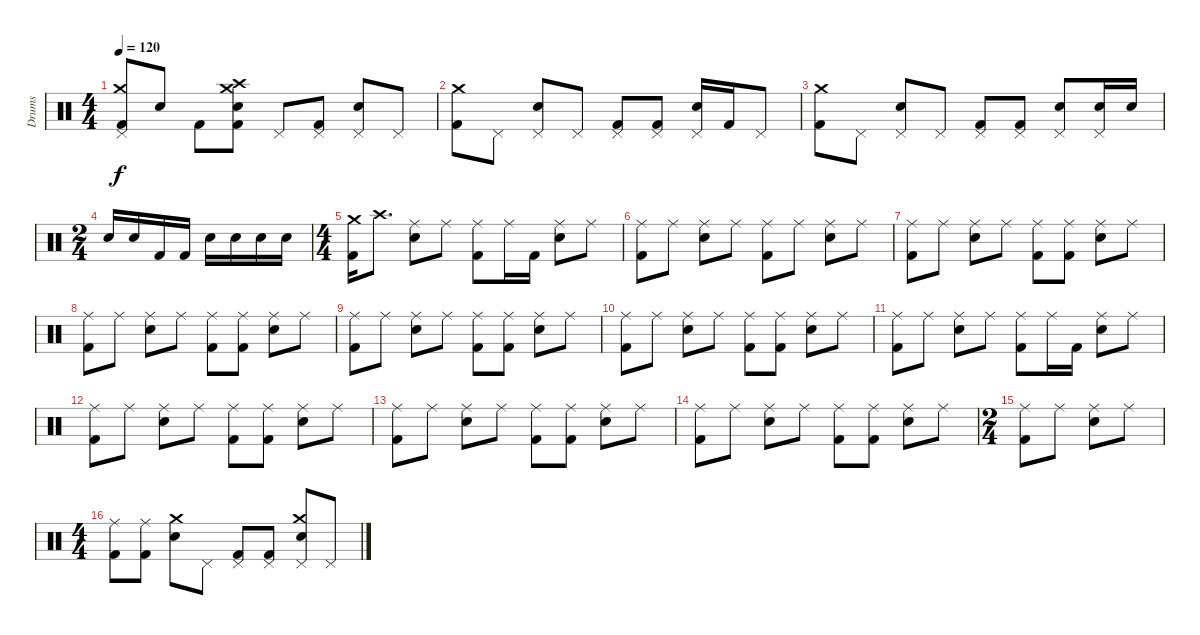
\track ("Drums" "Drums") {instrument percussion}
\staff {score}
\articulation defaults
\ts (4 4)
\tempo 120
\clef neutral
\ks c
("Pedal Hi-Hat (hit)" "Crash medium (hit)" "Kick (hit) 2").8{dy f} "Snare (hit) 2".8 "Kick (hit) 2".8 ("Crash medium (hit)" "Kick (hit) 2" "Snare (hit) 2" "Crash high (hit)").8 "Pedal Hi-Hat (hit)".8 ("Pedal Hi-Hat (hit)" "Kick (hit) 2").8 ("Pedal Hi-Hat (hit)" "Snare (hit) 2").8 "Pedal Hi-Hat (hit)".8 |
("Kick (hit) 2" "Crash medium (hit)").8 "Pedal Hi-Hat (hit)".8 ("Pedal Hi-Hat (hit)" "Snare (hit) 2").8 "Pedal Hi-Hat (hit)".8 ("Pedal Hi-Hat (hit)" "Kick (hit) 2").8 ("Pedal Hi-Hat (hit)" "Kick (hit) 2").8 ("Pedal Hi-Hat (hit)" "Snare (hit) 2").16 "Kick (hit) 2".16 "Pedal Hi-Hat (hit)".8 |
("Crash medium (hit)" "Kick (hit) 2").8 "Pedal Hi-Hat (hit)".8 ("Pedal Hi-Hat (hit)" "Snare (hit) 2").8 "Pedal Hi-Hat (hit)".8 ("Pedal Hi-Hat (hit)" "Kick (hit) 2").8 ("Pedal Hi-Hat (hit)" "Kick (hit) 2").8 ("Pedal Hi-Hat (hit)" "Snare (hit) 2").8 ("Snare (hit) 2" "Pedal Hi-Hat (hit)").16 "Snare (hit) 2".16 |
\ts (2 4)
"Snare (hit) 2".16 "Snare (hit) 2".16 "Kick (hit) 2".16 "Kick (hit) 2".16 "Snare (hit) 2".16 "Snare (hit) 2".16 "Snare (hit) 2".16 "Snare (hit) 2".16 |
\ts (4 4)
("Crash medium (hit)" "Kick (hit) 2").16 "Crash high (hit)".8{d} ("Ride (middle)" "Snare (hit) 2").8 "Ride (middle)".8 ("Ride (middle)" "Kick (hit) 2").8 "Ride (middle)".16 "Kick (hit) 2".16 ("Ride (middle)" "Snare (hit) 2").8 "Ride (middle)".8 |
("Ride (middle)" "Kick (hit) 2").8 "Ride (middle)".8 ("Ride (middle)" "Snare (hit) 2").8 "Ride (middle)".8 ("Ride (middle)" "Kick (hit) 2").8 "Ride (middle)".8 ("Ride (middle)" "Snare (hit) 2").8 "Ride (middle)".8 |
("Ride (middle)" "Kick (hit) 2").8 "Ride (middle)".8 ("Ride (middle)" "Snare (hit) 2").8 "Ride (middle)".8 ("Ride (middle)" "Kick (hit) 2").8 ("Ride (middle)" "Kick (hit) 2").8 ("Ride (middle)" "Snare (hit) 2").8 "Ride (middle)".8 |
("Ride (middle)" "Kick (hit) 2").8 "Ride (middle)".8 ("Ride (middle)" "Snare (hit) 2").8 "Ride (middle)".8 ("Ride (middle)" "Kick (hit) 2").8 ("Ride (middle)" "Kick (hit) 2").8 ("Ride (middle)" "Snare (hit) 2").8 "Ride (middle)".8 |
("Ride (middle)" "Kick (hit) 2").8 "Ride (middle)".8 ("Ride (middle)" "Snare (hit) 2").8 "Ride (middle)".8 ("Ride (middle)" "Kick (hit) 2").8 ("Ride (middle)" "Kick (hit) 2").8 ("Ride (middle)" "Snare (hit) 2").8 "Ride (middle)".8 |
("Ride (middle)" "Kick (hit) 2").8 "Ride (middle)".8 ("Ride (middle)" "Snare (hit) 2").8 "Ride (middle)".8 ("Ride (middle)" "Kick (hit) 2").8 ("Ride (middle)" "Kick (hit) 2").8 ("Ride (middle)" "Snare (hit) 2").8 "Ride (middle)".8 |
("Ride (middle)" "Kick (hit) 2").8 "Ride (middle)".8 ("Ride (middle)" "Snare (hit) 2").8 "Ride (middle)".8 ("Ride (middle)" "Kick (hit) 2").8 "Ride (middle)".16 "Kick (hit) 2".16 ("Ride (middle)" "Snare (hit) 2").8 "Ride (middle)".8 |
("Ride (middle)" "Kick (hit) 2").8 "Ride (middle)".8 ("Ride (middle)" "Snare (hit) 2").8 "Ride (middle)".8 ("Ride (middle)" "Kick (hit) 2").8 ("Ride (middle)" "Kick (hit) 2").8 ("Ride (middle)" "Snare (hit) 2").8 "Ride (middle)".8 |
("Ride (middle)" "Kick (hit) 2").8 "Ride (middle)".8 ("Ride (middle)" "Snare (hit) 2").8 "Ride (middle)".8 ("Ride (middle)" "Kick (hit) 2").8 ("Ride (middle)" "Kick (hit) 2").8 ("Ride (middle)" "Snare (hit) 2").8 "Ride (middle)".8 |
("Ride (middle)" "Kick (hit) 2").8 "Ride (middle)".8 ("Ride (middle)" "Snare (hit) 2").8 "Ride (middle)".8 ("Ride (middle)" "Kick (hit) 2").8 ("Ride (middle)" "Kick (hit) 2").8 ("Ride (middle)" "Snare (hit) 2").8 "Ride (middle)".8 |
\ts (2 4)
("Ride (middle)" "Kick (hit) 2").8 "Ride (middle)".8 ("Ride (middle)" "Snare (hit) 2").8 "Ride (middle)".8 |
\ts (4 4)
("Ride (middle)" "Kick (hit) 2").8 ("Ride (middle)" "Kick (hit) 2").8 ("Crash medium (hit)" "Snare (hit) 2").8 "Pedal Hi-Hat (hit)".8 ("Pedal Hi-Hat (hit)" "Kick (hit) 2").8 ("Pedal Hi-Hat (hit)" "Kick (hit) 2").8 ("Pedal Hi-Hat (hit)" "Crash medium (hit)" "Snare (hit) 2").8 "Pedal Hi-Hat (hit)".8
